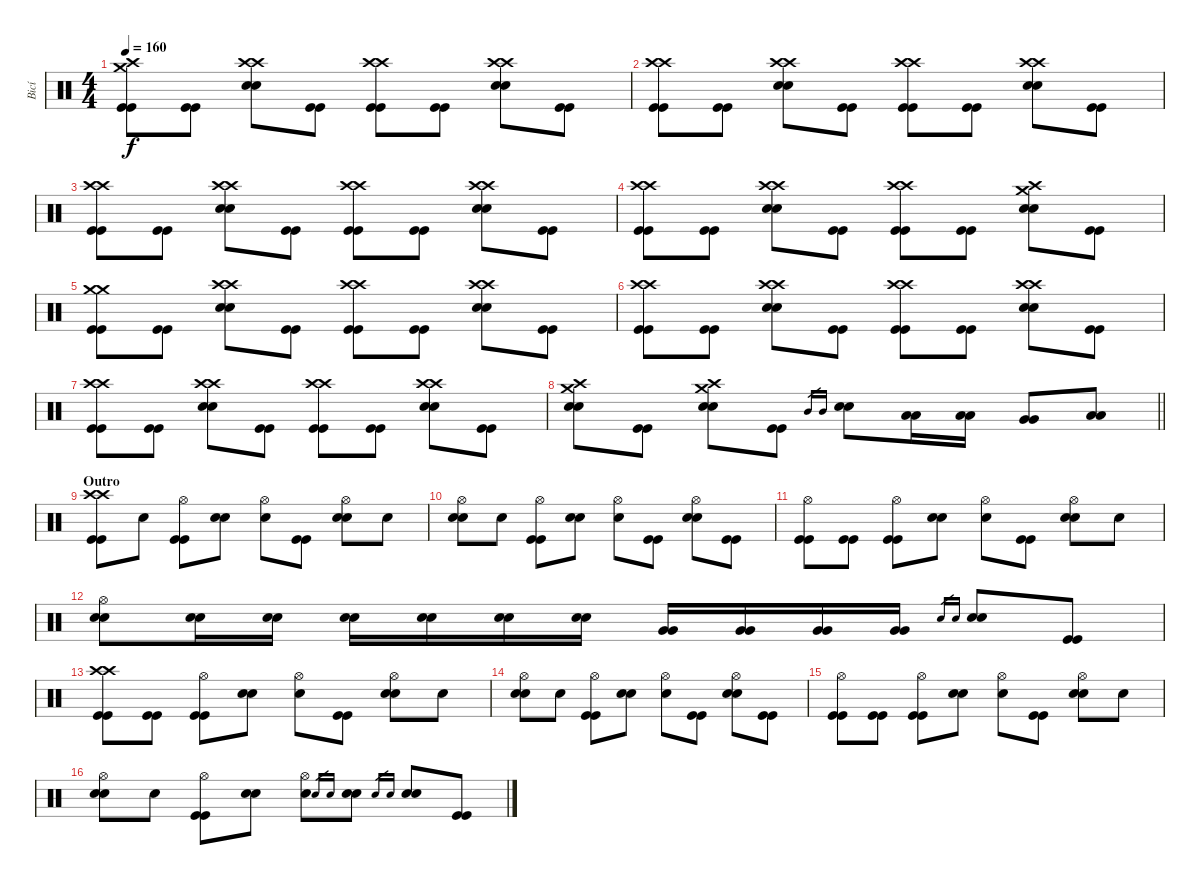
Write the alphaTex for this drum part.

\track ("Bicí" "Bicí") {instrument percussion}
\staff {score}
\articulation defaults
\ts (4 4)
\tempo 160
\clef neutral
\ks c
("Crash medium (hit)" "Crash high (hit)" "Kick (hit)" "Kick (hit)").8{dy f} ("Kick (hit)" "Kick (hit)").8 ("Crash high (hit)" "Crash high (hit)" "Electric Snare (hit)" "Electric Snare (hit)").8 ("Kick (hit)" "Kick (hit)").8 ("Crash high (hit)" "Crash high (hit)" "Kick (hit)" "Kick (hit)").8 ("Kick (hit)" "Kick (hit)").8 ("Crash high (hit)" "Crash high (hit)" "Electric Snare (hit)" "Electric Snare (hit)").8 ("Kick (hit)" "Kick (hit)").8 |
("Crash high (hit)" "Crash high (hit)" "Kick (hit)" "Kick (hit)").8 ("Kick (hit)" "Kick (hit)").8 ("Crash high (hit)" "Crash high (hit)" "Electric Snare (hit)" "Electric Snare (hit)").8 ("Kick (hit)" "Kick (hit)").8 ("Crash high (hit)" "Crash high (hit)" "Kick (hit)" "Kick (hit)").8 ("Kick (hit)" "Kick (hit)").8 ("Crash high (hit)" "Crash high (hit)" "Electric Snare (hit)" "Electric Snare (hit)").8 ("Kick (hit)" "Kick (hit)").8 |
("Crash high (hit)" "Crash high (hit)" "Kick (hit)" "Kick (hit)").8 ("Kick (hit)" "Kick (hit)").8 ("Crash high (hit)" "Crash high (hit)" "Electric Snare (hit)" "Electric Snare (hit)").8 ("Kick (hit)" "Kick (hit)").8 ("Crash high (hit)" "Crash high (hit)" "Kick (hit)" "Kick (hit)").8 ("Kick (hit)" "Kick (hit)").8 ("Crash high (hit)" "Crash high (hit)" "Electric Snare (hit)" "Electric Snare (hit)").8 ("Kick (hit)" "Kick (hit)").8 |
("Crash high (hit)" "Crash high (hit)" "Kick (hit)" "Kick (hit)").8 ("Kick (hit)" "Kick (hit)").8 ("Crash high (hit)" "Crash high (hit)" "Electric Snare (hit)" "Electric Snare (hit)").8 ("Kick (hit)" "Kick (hit)").8 ("Crash high (hit)" "Crash high (hit)" "Kick (hit)" "Kick (hit)").8 ("Kick (hit)" "Kick (hit)").8 ("Crash medium (hit)" "Crash high (hit)" "Electric Snare (hit)" "Electric Snare (hit)").8 ("Kick (hit)" "Kick (hit)").8 |
("Crash medium (hit)" "Crash medium (hit)" "Kick (hit)" "Kick (hit)").8 ("Kick (hit)" "Kick (hit)").8 ("Crash high (hit)" "Crash high (hit)" "Electric Snare (hit)" "Electric Snare (hit)").8 ("Kick (hit)" "Kick (hit)").8 ("Crash high (hit)" "Crash high (hit)" "Kick (hit)" "Kick (hit)").8 ("Kick (hit)" "Kick (hit)").8 ("Crash high (hit)" "Crash high (hit)" "Electric Snare (hit)" "Electric Snare (hit)").8 ("Kick (hit)" "Kick (hit)").8 |
("Crash high (hit)" "Crash high (hit)" "Kick (hit)" "Kick (hit)").8 ("Kick (hit)" "Kick (hit)").8 ("Crash high (hit)" "Crash high (hit)" "Electric Snare (hit)" "Electric Snare (hit)").8 ("Kick (hit)" "Kick (hit)").8 ("Crash high (hit)" "Crash high (hit)" "Kick (hit)" "Kick (hit)").8 ("Kick (hit)" "Kick (hit)").8 ("Crash high (hit)" "Crash high (hit)" "Electric Snare (hit)" "Electric Snare (hit)").8 ("Kick (hit)" "Kick (hit)").8 |
("Crash high (hit)" "Crash high (hit)" "Kick (hit)" "Kick (hit)").8 ("Kick (hit)" "Kick (hit)").8 ("Crash high (hit)" "Crash high (hit)" "Electric Snare (hit)" "Electric Snare (hit)").8 ("Kick (hit)" "Kick (hit)").8 ("Crash high (hit)" "Crash high (hit)" "Kick (hit)" "Kick (hit)").8 ("Kick (hit)" "Kick (hit)").8 ("Crash high (hit)" "Crash high (hit)" "Electric Snare (hit)" "Electric Snare (hit)").8 ("Kick (hit)" "Kick (hit)").8 |
\barLineRight lightlight
("Crash medium (hit)" "Crash high (hit)" "Electric Snare (hit)" "Electric Snare (hit)").8 ("Kick (hit)" "Kick (hit)").8 ("Crash medium (hit)" "Crash high (hit)" "Electric Snare (hit)" "Electric Snare (hit)").8 ("Kick (hit)" "Kick (hit)").8 "Mid Tom (hit)".16{gr} "Mid Tom (hit)".16{gr} ("Electric Snare (hit)" "Electric Snare (hit)").8 ("Low Tom (hit)" "Low Tom (hit)").16 ("Low Tom (hit)" "Low Tom (hit)").16 ("Very Low Tom (hit)" "Very Low Tom (hit)").8 ("Low Floor Tom (hit)" "Low Floor Tom (hit)").8 |
\section ("" "Outro")
("Crash high (hit)" "Crash high (hit)" "Kick (hit)" "Kick (hit)").8 "Snare (hit)".8 ("Hi-Hat (open)" "Kick (hit)" "Kick (hit)").8 ("Electric Snare (hit)" "Electric Snare (hit)").8 ("Hi-Hat (open)" "Snare (hit)").8 ("Kick (hit)" "Kick (hit)").8 ("Hi-Hat (open)" "Electric Snare (hit)" "Electric Snare (hit)").8 "Snare (hit)".8 |
("Hi-Hat (open)" "Electric Snare (hit)" "Electric Snare (hit)").8 "Snare (hit)".8 ("Hi-Hat (open)" "Kick (hit)" "Kick (hit)").8 ("Electric Snare (hit)" "Electric Snare (hit)").8 ("Hi-Hat (open)" "Snare (hit)").8 ("Kick (hit)" "Kick (hit)").8 ("Hi-Hat (open)" "Electric Snare (hit)" "Electric Snare (hit)").8 ("Kick (hit)" "Kick (hit)").8 |
("Hi-Hat (open)" "Kick (hit)" "Kick (hit)").8 ("Kick (hit)" "Kick (hit)").8 ("Hi-Hat (open)" "Kick (hit)" "Kick (hit)").8 ("Electric Snare (hit)" "Electric Snare (hit)").8 ("Hi-Hat (open)" "Snare (hit)").8 ("Kick (hit)" "Kick (hit)").8 ("Hi-Hat (open)" "Electric Snare (hit)" "Electric Snare (hit)").8 "Snare (hit)".8 |
("Hi-Hat (open)" "Electric Snare (hit)" "Electric Snare (hit)").8 ("Electric Snare (hit)" "Electric Snare (hit)").16 ("Electric Snare (hit)" "Electric Snare (hit)").16 ("Electric Snare (hit)" "Electric Snare (hit)").16 ("Electric Snare (hit)" "Electric Snare (hit)").16 ("Electric Snare (hit)" "Electric Snare (hit)").16 ("Electric Snare (hit)" "Electric Snare (hit)").16 ("Very Low Tom (hit)" "Very Low Tom (hit)").16 ("Very Low Tom (hit)" "Very Low Tom (hit)").16 ("Very Low Tom (hit)" "Very Low Tom (hit)").16 ("Very Low Tom (hit)" "Very Low Tom (hit)").16 "Electric Snare (hit)".16{gr} "Electric Snare (hit)".16{gr} ("Electric Snare (hit)" "Electric Snare (hit)").8 ("Kick (hit)" "Kick (hit)").8 |
("Crash high (hit)" "Crash high (hit)" "Kick (hit)" "Kick (hit)").8 ("Kick (hit)" "Kick (hit)").8 ("Hi-Hat (open)" "Kick (hit)" "Kick (hit)").8 ("Electric Snare (hit)" "Electric Snare (hit)").8 ("Hi-Hat (open)" "Snare (hit)").8 ("Kick (hit)" "Kick (hit)").8 ("Hi-Hat (open)" "Electric Snare (hit)" "Electric Snare (hit)").8 "Snare (hit)".8 |
("Hi-Hat (open)" "Electric Snare (hit)" "Electric Snare (hit)").8 "Snare (hit)".8 ("Hi-Hat (open)" "Kick (hit)" "Kick (hit)").8 ("Electric Snare (hit)" "Electric Snare (hit)").8 ("Hi-Hat (open)" "Snare (hit)").8 ("Kick (hit)" "Kick (hit)").8 ("Hi-Hat (open)" "Electric Snare (hit)" "Electric Snare (hit)").8 ("Kick (hit)" "Kick (hit)").8 |
("Hi-Hat (open)" "Kick (hit)" "Kick (hit)").8 ("Kick (hit)" "Kick (hit)").8 ("Hi-Hat (open)" "Kick (hit)" "Kick (hit)").8 ("Electric Snare (hit)" "Electric Snare (hit)").8 ("Hi-Hat (open)" "Snare (hit)").8 ("Kick (hit)" "Kick (hit)").8 ("Hi-Hat (open)" "Electric Snare (hit)" "Electric Snare (hit)").8 "Snare (hit)".8 |
("Hi-Hat (open)" "Electric Snare (hit)" "Electric Snare (hit)").8 "Snare (hit)".8 ("Hi-Hat (open)" "Kick (hit)" "Kick (hit)").8 ("Electric Snare (hit)" "Electric Snare (hit)").8 ("Hi-Hat (open)" "Snare (hit)").8 "Electric Snare (hit)".16{gr} "Electric Snare (hit)".16{gr} ("Electric Snare (hit)" "Electric Snare (hit)").8 "Electric Snare (hit)".16{gr} "Electric Snare (hit)".16{gr} ("Electric Snare (hit)" "Electric Snare (hit)").8 ("Kick (hit)" "Kick (hit)").8
